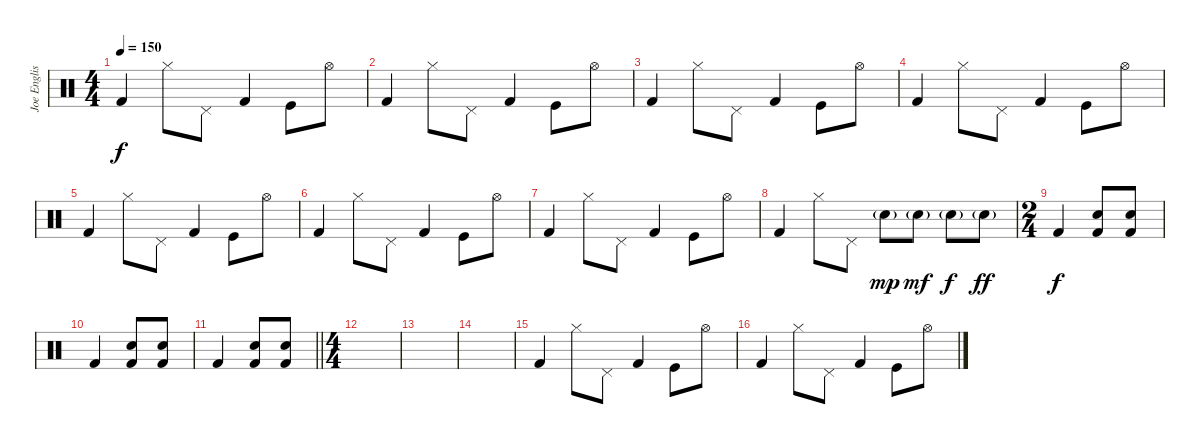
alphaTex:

\track ("Joe English" "Joe Englis") {instrument percussion}
\staff {score}
\articulation defaults
\ts (4 4)
\tempo 150
\clef neutral
\ks c "Kick (hit) 2".4{dy f} "Hi-Hat (closed)".8 "Pedal Hi-Hat (hit)".8 "Kick (hit) 2".4 "Kick (hit)".8 "Hi-Hat (open)".8
|
"Kick (hit) 2".4 "Hi-Hat (closed)".8 "Pedal Hi-Hat (hit)".8 "Kick (hit) 2".4 "Kick (hit)".8 "Hi-Hat (open)".8 |
"Kick (hit) 2".4 "Hi-Hat (closed)".8 "Pedal Hi-Hat (hit)".8 "Kick (hit) 2".4 "Kick (hit)".8 "Hi-Hat (open)".8 |
"Kick (hit) 2".4 "Hi-Hat (closed)".8 "Pedal Hi-Hat (hit)".8 "Kick (hit) 2".4 "Kick (hit)".8 "Hi-Hat (open)".8 |
"Kick (hit) 2".4 "Hi-Hat (closed)".8 "Pedal Hi-Hat (hit)".8 "Kick (hit) 2".4 "Kick (hit)".8 "Hi-Hat (open)".8 |
"Kick (hit) 2".4 "Hi-Hat (closed)".8 "Pedal Hi-Hat (hit)".8 "Kick (hit) 2".4 "Kick (hit)".8 "Hi-Hat (open)".8 |
"Kick (hit) 2".4 "Hi-Hat (closed)".8 "Pedal Hi-Hat (hit)".8 "Kick (hit) 2".4 "Kick (hit)".8 "Hi-Hat (open)".8 |
"Kick (hit) 2".4 "Hi-Hat (closed)".8 "Pedal Hi-Hat (hit)".8 "Snare (hit) 2"{g}.8{dy mp} "Snare (hit) 2"{g}.8{dy mf} "Snare (hit) 2"{g}.8{dy f} "Snare (hit) 2"{g}.8{dy ff} |
\ts (2 4)
"Kick (hit) 2".4{dy f} ("Kick (hit) 2" "Snare (hit) 2").8 ("Kick (hit) 2" "Snare (hit) 2").8 |
"Kick (hit) 2".4 ("Kick (hit) 2" "Snare (hit) 2").8 ("Kick (hit) 2" "Snare (hit) 2").8 |
\barLineRight lightlight "Kick (hit) 2".4
("Kick (hit) 2" "Snare (hit) 2").8 ("Kick (hit) 2" "Snare (hit) 2").8 |
\ts (4 4)
|
|
|
"Kick (hit) 2".4 "Hi-Hat (closed)".8 "Pedal Hi-Hat (hit)".8 "Kick (hit) 2".4 "Kick (hit)".8 "Hi-Hat (open)".8 |
"Kick (hit) 2".4 "Hi-Hat (closed)".8 "Pedal Hi-Hat (hit)".8 "Kick (hit) 2".4 "Kick (hit)".8 "Hi-Hat (open)".8
